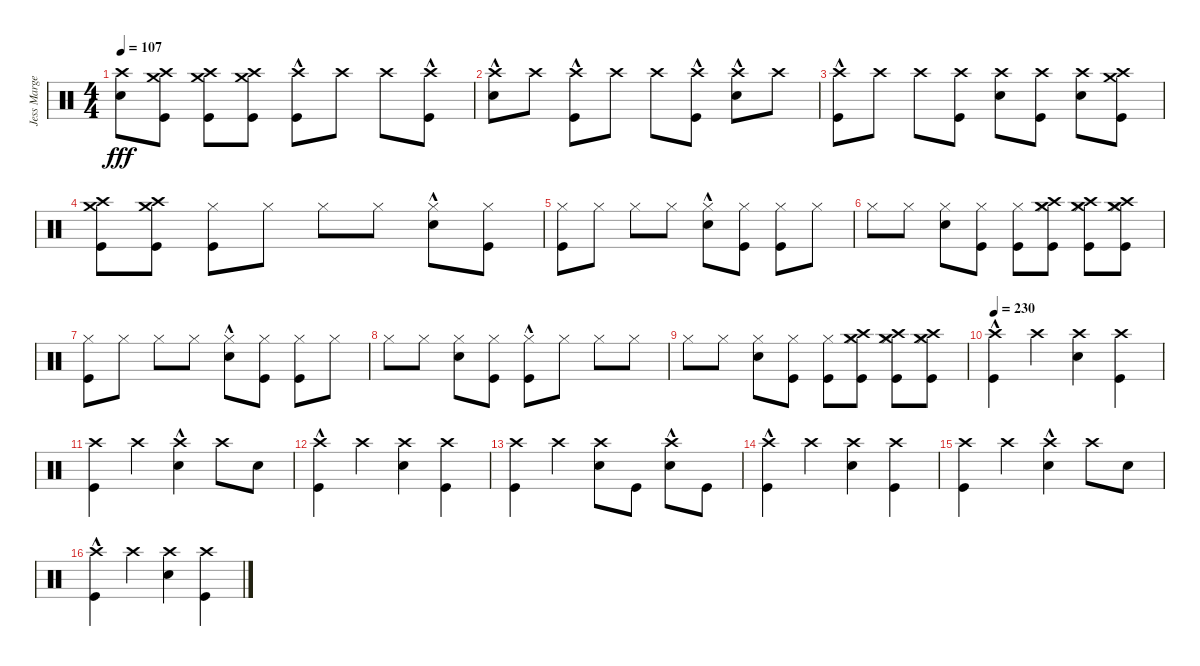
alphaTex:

\track ("Jess Margera (drums)" "Jess Marge") {instrument percussion}
\staff {score}
\articulation defaults
\ts (4 4)
\tempo 107
\clef neutral
\ks c
("Snare (hit) 2" "Crash high (hit)").8{dy fff} ("Kick (hit)" "Crash medium (hit)" "Crash high (hit)").8 ("Kick (hit)" "Crash medium (hit)" "Crash high (hit)").8 ("Kick (hit)" "Crash medium (hit)" "Crash high (hit)").8 ("Kick (hit)"{hac} "Crash high (hit)").8 "Crash high (hit)".8 "Crash high (hit)".8 ("Kick (hit)"{hac} "Crash high (hit)").8 |
("Snare (hit) 2"{hac} "Crash high (hit)").8 "Crash high (hit)".8 ("Kick (hit)"{hac} "Crash high (hit)").8 "Crash high (hit)".8 "Crash high (hit)".8 ("Kick (hit)"{hac} "Crash high (hit)").8 ("Snare (hit) 2"{hac} "Crash high (hit)").8 "Crash high (hit)".8 |
("Kick (hit)"{hac} "Crash high (hit)").8 "Crash high (hit)".8 "Crash high (hit)".8 ("Kick (hit)" "Crash high (hit)").8 ("Snare (hit) 2" "Crash high (hit)").8 ("Kick (hit)" "Crash high (hit)").8 ("Snare (hit) 2" "Crash high (hit)").8 ("Kick (hit)" "Crash medium (hit)" "Crash high (hit)").8 |
("Kick (hit)" "Crash medium (hit)" "Crash high (hit)").8 ("Kick (hit)" "Crash medium (hit)" "Crash high (hit)").8 ("Kick (hit)" "Hi-Hat (closed)").8 "Hi-Hat (closed)".8 "Hi-Hat (closed)".8 "Hi-Hat (closed)".8 ("Snare (hit) 2"{hac} "Hi-Hat (closed)").8 ("Kick (hit)" "Hi-Hat (closed)").8 |
("Kick (hit)" "Hi-Hat (closed)").8 "Hi-Hat (closed)".8 "Hi-Hat (closed)".8 "Hi-Hat (closed)".8 ("Snare (hit) 2"{hac} "Hi-Hat (closed)").8 ("Kick (hit)" "Hi-Hat (closed)").8 ("Kick (hit)" "Hi-Hat (closed)").8 "Hi-Hat (closed)".8 |
"Hi-Hat (closed)".8 "Hi-Hat (closed)".8 ("Snare (hit) 2" "Hi-Hat (closed)").8 ("Kick (hit)" "Hi-Hat (closed)").8 ("Kick (hit)" "Hi-Hat (closed)").8 ("Kick (hit)" "Hi-Hat (closed)" "Crash medium (hit)" "Crash high (hit)").8 ("Kick (hit)" "Hi-Hat (closed)" "Crash medium (hit)" "Crash high (hit)").8 ("Kick (hit)" "Hi-Hat (closed)" "Crash medium (hit)" "Crash high (hit)").8 |
("Kick (hit)" "Hi-Hat (closed)").8 "Hi-Hat (closed)".8 "Hi-Hat (closed)".8 "Hi-Hat (closed)".8 ("Snare (hit) 2"{hac} "Hi-Hat (closed)").8 ("Kick (hit)" "Hi-Hat (closed)").8 ("Kick (hit)" "Hi-Hat (closed)").8 "Hi-Hat (closed)".8 |
"Hi-Hat (closed)".8 "Hi-Hat (closed)".8 ("Snare (hit) 2" "Hi-Hat (closed)").8 ("Kick (hit)" "Hi-Hat (closed)").8 ("Kick (hit)"{hac} "Hi-Hat (closed)").8 "Hi-Hat (closed)".8 "Hi-Hat (closed)".8 "Hi-Hat (closed)".8 |
"Hi-Hat (closed)".8 "Hi-Hat (closed)".8 ("Snare (hit) 2" "Hi-Hat (closed)").8 ("Kick (hit)" "Hi-Hat (closed)").8 ("Kick (hit)" "Hi-Hat (closed)").8 ("Kick (hit)" "Hi-Hat (closed)" "Crash medium (hit)" "Crash high (hit)").8 ("Kick (hit)" "Hi-Hat (closed)" "Crash medium (hit)" "Crash high (hit)").8 ("Kick (hit)" "Hi-Hat (closed)" "Crash medium (hit)" "Crash high (hit)").8 |
\tempo 230
("Kick (hit)"{hac} "Crash high (hit)").4 "Crash high (hit)".4 ("Snare (hit) 2" "Crash high (hit)").4 ("Kick (hit)" "Crash high (hit)").4 |
("Kick (hit)" "Crash high (hit)").4 "Crash high (hit)".4 ("Snare (hit) 2"{hac} "Crash high (hit)").4 "Crash high (hit)".8 "Snare (hit) 2".8 |
("Kick (hit)"{hac} "Crash high (hit)").4 "Crash high (hit)".4 ("Snare (hit) 2" "Crash high (hit)").4 ("Kick (hit)" "Crash high (hit)").4 |
("Kick (hit)" "Crash high (hit)").4 "Crash high (hit)".4 ("Snare (hit) 2" "Crash high (hit)").8 "Kick (hit)".8 ("Snare (hit) 2"{hac} "Crash high (hit)").8 "Kick (hit)".8 |
("Kick (hit)"{hac} "Crash high (hit)").4 "Crash high (hit)".4 ("Snare (hit) 2" "Crash high (hit)").4 ("Kick (hit)" "Crash high (hit)").4 |
("Kick (hit)" "Crash high (hit)").4 "Crash high (hit)".4 ("Snare (hit) 2"{hac} "Crash high (hit)").4 "Crash high (hit)".8 "Snare (hit) 2".8 |
("Kick (hit)"{hac} "Crash high (hit)").4 "Crash high (hit)".4 ("Snare (hit) 2" "Crash high (hit)").4 ("Kick (hit)" "Crash high (hit)").4
